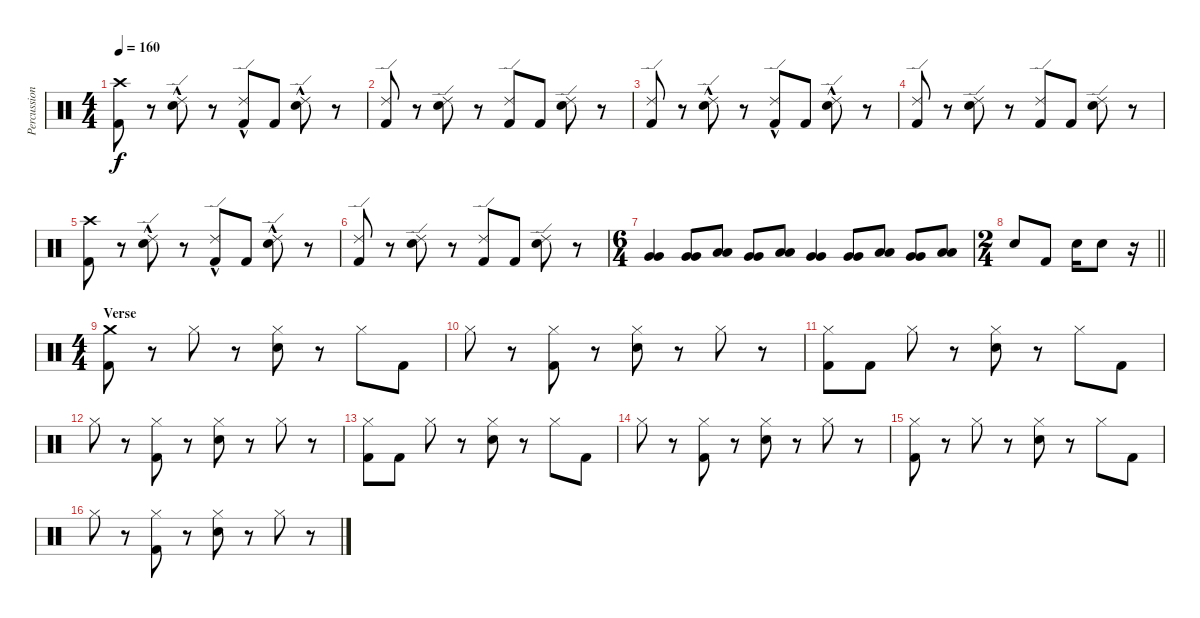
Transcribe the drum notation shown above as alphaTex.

\track ("Percussion" "Percussion") {instrument percussion}
\staff {score}
\articulation defaults
\ts (4 4)
\tempo 160
\clef neutral
\ks c
("Crash high (hit)" "Kick (hit) 2").8{dy f} r.8 ("Ride (edge) 2"{hac} "Electric Snare (hit)").8 r.8 ("Ride (edge) 2"{hac} "Kick (hit) 2").8 "Kick (hit) 2".8 ("Ride (edge) 2"{hac} "Electric Snare (hit)").8 r.8 |
("Ride (edge) 2" "Kick (hit) 2").8 r.8 ("Ride (edge) 2" "Electric Snare (hit)").8 r.8 ("Ride (edge) 2" "Kick (hit) 2").8 "Kick (hit) 2".8 ("Ride (edge) 2" "Electric Snare (hit)").8 r.8 |
("Ride (edge) 2" "Kick (hit) 2").8 r.8 ("Ride (edge) 2"{hac} "Electric Snare (hit)").8 r.8 ("Ride (edge) 2"{hac} "Kick (hit) 2").8 "Kick (hit) 2".8 ("Ride (edge) 2"{hac} "Electric Snare (hit)").8 r.8 |
("Ride (edge) 2" "Kick (hit) 2").8 r.8 ("Ride (edge) 2" "Electric Snare (hit)").8 r.8 ("Ride (edge) 2" "Kick (hit) 2").8 "Kick (hit) 2".8 ("Ride (edge) 2" "Electric Snare (hit)").8 r.8 |
("Crash high (hit)" "Kick (hit) 2").8 r.8 ("Ride (edge) 2"{hac} "Electric Snare (hit)").8 r.8 ("Ride (edge) 2"{hac} "Kick (hit) 2").8 "Kick (hit) 2".8 ("Ride (edge) 2"{hac} "Electric Snare (hit)").8 r.8 |
("Ride (edge) 2" "Kick (hit) 2").8 r.8 ("Ride (edge) 2" "Electric Snare (hit)").8 r.8 ("Ride (edge) 2" "Kick (hit) 2").8 "Kick (hit) 2".8 ("Ride (edge) 2" "Electric Snare (hit)").8 r.8 |
\ts (6 4)
("Very Low Tom (hit)" "Very Low Tom (hit)").4 ("Very Low Tom (hit)" "Very Low Tom (hit)").8 ("Low Floor Tom (hit)" "Low Floor Tom (hit)").8 ("Very Low Tom (hit)" "Very Low Tom (hit)").8 ("Low Floor Tom (hit)" "Low Floor Tom (hit)").8 ("Very Low Tom (hit)" "Very Low Tom (hit)").4 ("Very Low Tom (hit)" "Very Low Tom (hit)").8 ("Low Floor Tom (hit)" "Low Floor Tom (hit)").8 ("Very Low Tom (hit)" "Very Low Tom (hit)").8 ("Low Tom (hit)" "Low Tom (hit)").8 |
\ts (2 4)
\barLineRight lightlight "Electric Snare (hit)".8 "Kick (hit) 2".8 "Electric Snare (hit)".16 "Electric Snare (hit)".8
r.16 |
\ts (4 4)
\section ("" "Verse ")
("Crash medium (hit)" "Kick (hit) 2").8 r.8 "Hi-Hat (closed)".8 r.8 ("Hi-Hat (closed)" "Electric Snare (hit)").8 r.8 "Hi-Hat (closed)".8 "Kick (hit) 2".8 |
"Hi-Hat (closed)".8 r.8 ("Hi-Hat (closed)" "Kick (hit) 2").8 r.8 ("Hi-Hat (closed)" "Electric Snare (hit)").8 r.8 "Hi-Hat (closed)".8 r.8 |
("Hi-Hat (closed)" "Kick (hit) 2").8 "Kick (hit) 2".8 "Hi-Hat (closed)".8 r.8 ("Hi-Hat (closed)" "Electric Snare (hit)").8 r.8 "Hi-Hat (closed)".8 "Kick (hit) 2".8 |
"Hi-Hat (closed)".8 r.8 ("Hi-Hat (closed)" "Kick (hit) 2").8 r.8 ("Hi-Hat (closed)" "Electric Snare (hit)").8 r.8 "Hi-Hat (closed)".8 r.8 |
("Hi-Hat (closed)" "Kick (hit) 2").8 "Kick (hit) 2".8 "Hi-Hat (closed)".8 r.8 ("Hi-Hat (closed)" "Electric Snare (hit)").8 r.8 "Hi-Hat (closed)".8 "Kick (hit) 2".8 |
"Hi-Hat (closed)".8 r.8 ("Hi-Hat (closed)" "Kick (hit) 2").8 r.8 ("Hi-Hat (closed)" "Electric Snare (hit)").8 r.8 "Hi-Hat (closed)".8 r.8 |
("Hi-Hat (closed)" "Kick (hit) 2").8 r.8 "Hi-Hat (closed)".8 r.8 ("Hi-Hat (closed)" "Electric Snare (hit)").8 r.8 "Hi-Hat (closed)".8 "Kick (hit) 2".8 |
"Hi-Hat (closed)".8 r.8 ("Hi-Hat (closed)" "Kick (hit) 2").8 r.8 ("Hi-Hat (closed)" "Electric Snare (hit)").8 r.8 "Hi-Hat (closed)".8 r.8
